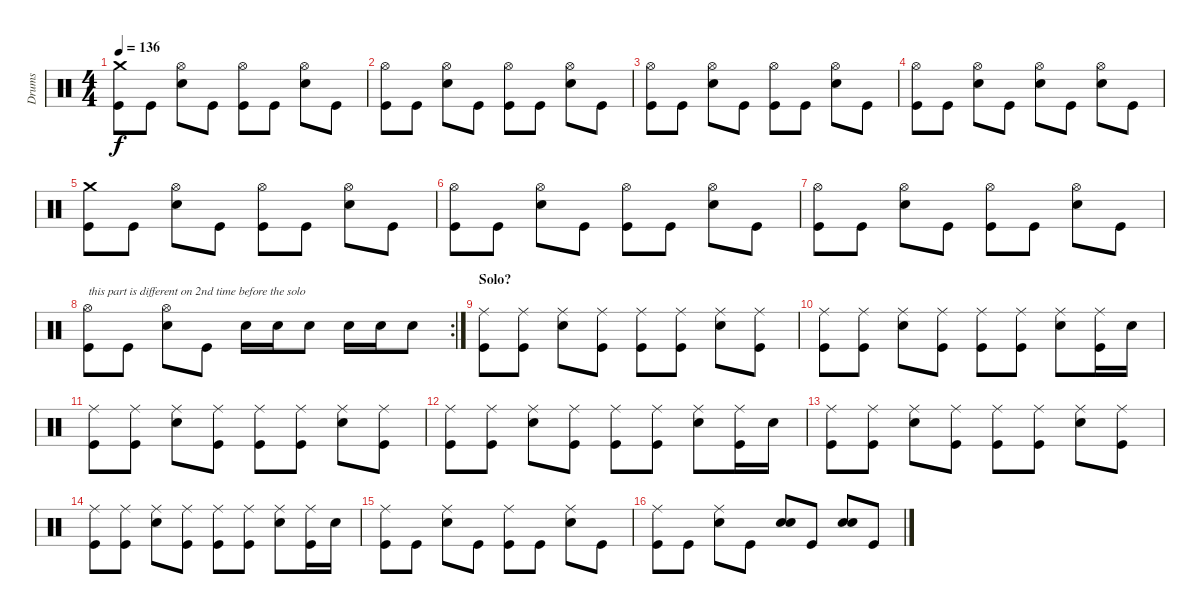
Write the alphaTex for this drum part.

\track ("Drums" "Drums") {instrument percussion}
\staff {score}
\articulation defaults
\ts (4 4)
\tempo 136
\clef neutral
\ks c
("Crash medium (hit)" "Kick (hit)").8{dy f} "Kick (hit)".8 ("Hi-Hat (open)" "Snare (hit) 2").8 "Kick (hit)".8 ("Hi-Hat (open)" "Kick (hit)").8 "Kick (hit)".8 ("Hi-Hat (open)" "Snare (hit) 2").8 "Kick (hit)".8 |
("Hi-Hat (open)" "Kick (hit)").8 "Kick (hit)".8 ("Hi-Hat (open)" "Snare (hit) 2").8 "Kick (hit)".8 ("Hi-Hat (open)" "Kick (hit)").8 "Kick (hit)".8 ("Hi-Hat (open)" "Snare (hit) 2").8 "Kick (hit)".8 |
("Hi-Hat (open)" "Kick (hit)").8 "Kick (hit)".8 ("Hi-Hat (open)" "Snare (hit) 2").8 "Kick (hit)".8 ("Hi-Hat (open)" "Kick (hit)").8 "Kick (hit)".8 ("Hi-Hat (open)" "Snare (hit) 2").8 "Kick (hit)".8 |
("Hi-Hat (open)" "Kick (hit)").8 "Kick (hit)".8 ("Hi-Hat (open)" "Snare (hit) 2").8 "Kick (hit)".8 ("Hi-Hat (open)" "Snare (hit) 2").8 "Kick (hit)".8 ("Hi-Hat (open)" "Snare (hit) 2").8 "Kick (hit)".8 |
("Crash medium (hit)" "Kick (hit)").8 "Kick (hit)".8 ("Hi-Hat (open)" "Snare (hit) 2").8 "Kick (hit)".8 ("Hi-Hat (open)" "Kick (hit)").8 "Kick (hit)".8 ("Hi-Hat (open)" "Snare (hit) 2").8 "Kick (hit)".8 |
("Hi-Hat (open)" "Kick (hit)").8 "Kick (hit)".8 ("Hi-Hat (open)" "Snare (hit) 2").8 "Kick (hit)".8 ("Hi-Hat (open)" "Kick (hit)").8 "Kick (hit)".8 ("Hi-Hat (open)" "Snare (hit) 2").8 "Kick (hit)".8 |
("Hi-Hat (open)" "Kick (hit)").8 "Kick (hit)".8 ("Hi-Hat (open)" "Snare (hit) 2").8 "Kick (hit)".8 ("Hi-Hat (open)" "Kick (hit)").8 "Kick (hit)".8 ("Hi-Hat (open)" "Snare (hit) 2").8 "Kick (hit)".8 |
\rc 2
("Hi-Hat (open)" "Kick (hit)").8{txt "this part is different on 2nd time before the solo"} "Kick (hit)".8 ("Hi-Hat (open)" "Snare (hit) 2").8 "Kick (hit)".8 "Snare (hit) 2".16 "Snare (hit) 2".16 "Snare (hit) 2".8 "Snare (hit) 2".16 "Snare (hit) 2".16 "Snare (hit) 2".8 |
\section ("" "Solo?")
("Ride (middle)" "Kick (hit)").8 ("Ride (middle)" "Kick (hit)").8 ("Ride (middle)" "Snare (hit) 2").8 ("Ride (middle)" "Kick (hit)").8 ("Ride (middle)" "Kick (hit)").8 ("Ride (middle)" "Kick (hit)").8 ("Ride (middle)" "Snare (hit) 2").8 ("Ride (middle)" "Kick (hit)").8 |
("Ride (middle)" "Kick (hit)").8 ("Ride (middle)" "Kick (hit)").8 ("Ride (middle)" "Snare (hit) 2").8 ("Ride (middle)" "Kick (hit)").8 ("Ride (middle)" "Kick (hit)").8 ("Ride (middle)" "Kick (hit)").8 ("Ride (middle)" "Snare (hit) 2").8 ("Ride (middle)" "Kick (hit)").16 "Snare (hit) 2".16 |
("Ride (middle)" "Kick (hit)").8 ("Ride (middle)" "Kick (hit)").8 ("Ride (middle)" "Snare (hit) 2").8 ("Ride (middle)" "Kick (hit)").8 ("Ride (middle)" "Kick (hit)").8 ("Ride (middle)" "Kick (hit)").8 ("Ride (middle)" "Snare (hit) 2").8 ("Ride (middle)" "Kick (hit)").8 |
("Ride (middle)" "Kick (hit)").8 ("Ride (middle)" "Kick (hit)").8 ("Ride (middle)" "Snare (hit) 2").8 ("Ride (middle)" "Kick (hit)").8 ("Ride (middle)" "Kick (hit)").8 ("Ride (middle)" "Kick (hit)").8 ("Ride (middle)" "Snare (hit) 2").8 ("Ride (middle)" "Kick (hit)").16 "Snare (hit) 2".16 |
("Ride (middle)" "Kick (hit)").8 ("Ride (middle)" "Kick (hit)").8 ("Ride (middle)" "Snare (hit) 2").8 ("Ride (middle)" "Kick (hit)").8 ("Ride (middle)" "Kick (hit)").8 ("Ride (middle)" "Kick (hit)").8 ("Ride (middle)" "Snare (hit) 2").8 ("Ride (middle)" "Kick (hit)").8 |
("Ride (middle)" "Kick (hit)").8 ("Ride (middle)" "Kick (hit)").8 ("Ride (middle)" "Snare (hit) 2").8 ("Ride (middle)" "Kick (hit)").8 ("Ride (middle)" "Kick (hit)").8 ("Ride (middle)" "Kick (hit)").8 ("Ride (middle)" "Snare (hit) 2").8 ("Ride (middle)" "Kick (hit)").16 "Snare (hit) 2".16 |
("Ride (middle)" "Kick (hit)").8 "Kick (hit)".8 ("Ride (middle)" "Snare (hit) 2").8 "Kick (hit)".8 ("Ride (middle)" "Kick (hit)").8 "Kick (hit)".8 ("Ride (middle)" "Snare (hit) 2").8 "Kick (hit)".8 |
("Ride (middle)" "Kick (hit)").8 "Kick (hit)".8 ("Ride (middle)" "Snare (hit) 2").8 "Kick (hit)".8 ("Snare (hit) 2" "Snare (hit) 2").8 "Kick (hit)".8 ("Snare (hit) 2" "Snare (hit) 2").8 "Kick (hit)".8
